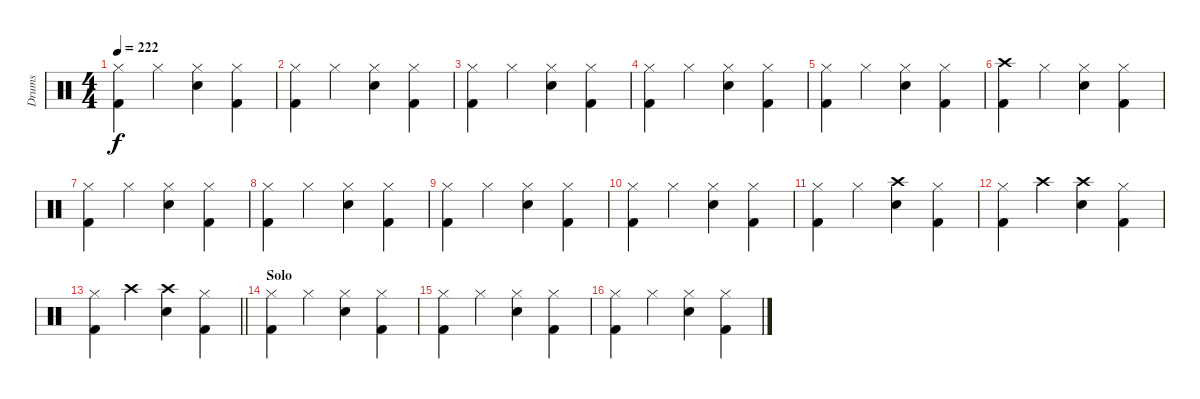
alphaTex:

\track ("Drums" "Drums") {instrument percussion}
\staff {score}
\articulation defaults
\ts (4 4)
\tempo 222
\clef neutral
\ks c
("Hi-Hat (closed)" "Kick (hit) 2").4{dy f} "Hi-Hat (closed)".4 ("Hi-Hat (closed)" "Electric Snare (hit)").4 ("Hi-Hat (closed)" "Kick (hit) 2").4 |
("Hi-Hat (closed)" "Kick (hit) 2").4 "Hi-Hat (closed)".4 ("Hi-Hat (closed)" "Electric Snare (hit)").4 ("Hi-Hat (closed)" "Kick (hit) 2").4 |
("Hi-Hat (closed)" "Kick (hit) 2").4 "Hi-Hat (closed)".4 ("Hi-Hat (closed)" "Electric Snare (hit)").4 ("Hi-Hat (closed)" "Kick (hit) 2").4 |
("Hi-Hat (closed)" "Kick (hit) 2").4 "Hi-Hat (closed)".4 ("Hi-Hat (closed)" "Electric Snare (hit)").4 ("Hi-Hat (closed)" "Kick (hit) 2").4 |
("Hi-Hat (closed)" "Kick (hit) 2").4 "Hi-Hat (closed)".4 ("Hi-Hat (closed)" "Electric Snare (hit)").4 ("Hi-Hat (closed)" "Kick (hit) 2").4 |
("Crash high (hit)" "Kick (hit) 2").4 "Hi-Hat (closed)".4 ("Hi-Hat (closed)" "Electric Snare (hit)").4 ("Hi-Hat (closed)" "Kick (hit) 2").4 |
("Hi-Hat (closed)" "Kick (hit) 2").4 "Hi-Hat (closed)".4 ("Hi-Hat (closed)" "Electric Snare (hit)").4 ("Hi-Hat (closed)" "Kick (hit) 2").4 |
("Hi-Hat (closed)" "Kick (hit) 2").4 "Hi-Hat (closed)".4 ("Hi-Hat (closed)" "Electric Snare (hit)").4 ("Hi-Hat (closed)" "Kick (hit) 2").4 |
("Hi-Hat (closed)" "Kick (hit) 2").4 "Hi-Hat (closed)".4 ("Hi-Hat (closed)" "Electric Snare (hit)").4 ("Hi-Hat (closed)" "Kick (hit) 2").4 |
("Hi-Hat (closed)" "Kick (hit) 2").4 "Hi-Hat (closed)".4 ("Hi-Hat (closed)" "Electric Snare (hit)").4 ("Hi-Hat (closed)" "Kick (hit) 2").4 |
("Hi-Hat (closed)" "Kick (hit) 2").4 "Hi-Hat (closed)".4 ("Crash high (hit)" "Electric Snare (hit)").4 ("Hi-Hat (closed)" "Kick (hit) 2").4 |
("Hi-Hat (closed)" "Kick (hit) 2").4 "Crash high (hit)".4 ("Crash high (hit)" "Electric Snare (hit)").4 ("Hi-Hat (closed)" "Kick (hit) 2").4 |
\barLineRight lightlight
("Hi-Hat (closed)" "Kick (hit) 2").4 "Crash high (hit)".4 ("Crash high (hit)" "Electric Snare (hit)").4 ("Hi-Hat (closed)" "Kick (hit) 2").4 |
\section ("" "Solo")
("Hi-Hat (closed)" "Kick (hit) 2").4{volume 16} "Hi-Hat (closed)".4 ("Hi-Hat (closed)" "Electric Snare (hit)").4 ("Hi-Hat (closed)" "Kick (hit) 2").4 |
("Hi-Hat (closed)" "Kick (hit) 2").4 "Hi-Hat (closed)".4 ("Hi-Hat (closed)" "Electric Snare (hit)").4 ("Hi-Hat (closed)" "Kick (hit) 2").4 |
("Hi-Hat (closed)" "Kick (hit) 2").4 "Hi-Hat (closed)".4 ("Hi-Hat (closed)" "Electric Snare (hit)").4 ("Hi-Hat (closed)" "Kick (hit) 2").4
